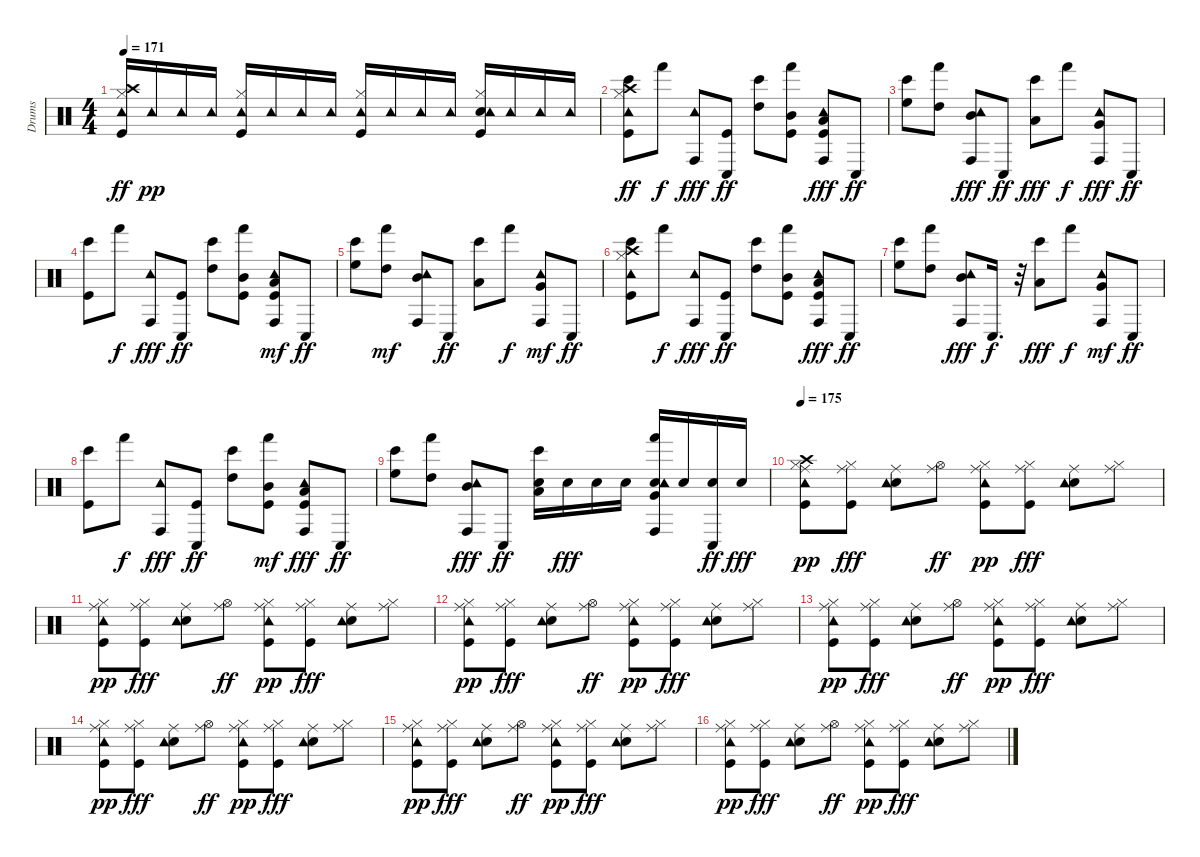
\track ("Drums" "Drums") {instrument percussion}
\staff {score}
\articulation defaults
\ts (4 4)
\tempo 171
\clef neutral
\ks c
("Kick (hit)" "Hi-Hat (closed)" "Crash high (hit)" "Tambourine (hit)").16{dy ff} "Tambourine (hit)".16{dy pp} "Tambourine (hit)".16 "Tambourine (hit)".16 ("Kick (hit)" "Hi-Hat (closed)" "Tambourine (hit)").16 "Tambourine (hit)".16 "Tambourine (hit)".16 "Tambourine (hit)".16 ("Kick (hit)" "Hi-Hat (closed)" "Tambourine (hit)").16 "Tambourine (hit)".16 "Tambourine (hit)".16 "Tambourine (hit)".16 ("Kick (hit)" "Snare (hit) 2" "Hi-Hat (closed)" "Tambourine (hit)").16 "Tambourine (hit)".16 "Tambourine (hit)".16 "Tambourine (hit)".16 |
("Kick (hit)" "Hi-Hat (closed)" "Crash high (hit)" "Tambourine (hit)" "Bongo High (hit)").8{dy ff} "Hand (hit)".8{dy f} ("Tambourine (hit)" "Conga high (hit)").8{dy fff} ("Kick (hit)" "Conga low (hit)").8{dy ff} ("High Tom (hit)" "Bongo High (hit)").8 ("Kick (hit)" "Mid Tom (hit)" "Hand (hit)").8 ("Kick (hit)" "Low Tom (hit)" "Tambourine (hit)" "Conga high (hit)").8{dy fff} "Conga low (hit)".8{dy ff} |
("High Floor Tom (hit)" "Bongo High (hit)").8 ("High Tom (hit)" "Hand (hit)").8 ("Mid Tom (hit)" "Tambourine (hit)" "Conga high (hit)").8{dy fff} "Conga low (hit)".8{dy ff} ("Low Tom (hit)" "Bongo High (hit)").8{dy fff} "Hand (hit)".8{dy f} ("Very Low Tom (hit)" "Tambourine (hit)" "Conga high (hit)").8{dy fff} "Conga low (hit)".8{dy ff} |
("Kick (hit)" "Bongo High (hit)").8 "Hand (hit)".8{dy f} ("Tambourine (hit)" "Conga high (hit)").8{dy fff} ("Kick (hit)" "Conga low (hit)").8{dy ff} ("High Tom (hit)" "Bongo High (hit)").8 ("Kick (hit)" "Mid Tom (hit)" "Hand (hit)").8 ("Kick (hit)" "Low Tom (hit)" "Tambourine (hit)" "Conga high (hit)").8{dy mf} "Conga low (hit)".8{dy ff} |
("High Floor Tom (hit)" "Bongo High (hit)").8 ("High Tom (hit)" "Hand (hit)").8{dy mf} ("Mid Tom (hit)" "Tambourine (hit)" "Conga high (hit)").8 "Conga low (hit)".8{dy ff} ("Low Tom (hit)" "Bongo High (hit)").8 "Hand (hit)".8{dy f} ("Very Low Tom (hit)" "Tambourine (hit)" "Conga high (hit)").8{dy mf} "Conga low (hit)".8{dy ff} |
("Kick (hit)" "Hi-Hat (closed)" "Crash high (hit)" "Tambourine (hit)" "Bongo High (hit)").8 "Hand (hit)".8{dy f} ("Tambourine (hit)" "Conga high (hit)").8{dy fff} ("Kick (hit)" "Conga low (hit)").8{dy ff} ("High Tom (hit)" "Bongo High (hit)").8 ("Kick (hit)" "Mid Tom (hit)" "Hand (hit)").8 ("Kick (hit)" "Low Tom (hit)" "Tambourine (hit)" "Conga high (hit)").8{dy fff} "Conga low (hit)".8{dy ff} |
("High Floor Tom (hit)" "Bongo High (hit)").8 ("High Tom (hit)" "Hand (hit)").8 ("Mid Tom (hit)" "Tambourine (hit)" "Conga high (hit)").8{dy fff} "Conga low (hit)".16{d dy f} r.32 ("Low Tom (hit)" "Bongo High (hit)").8{dy fff} "Hand (hit)".8{dy f} ("Very Low Tom (hit)" "Tambourine (hit)" "Conga high (hit)").8{dy mf} "Conga low (hit)".8{dy ff} |
("Kick (hit)" "Bongo High (hit)").8 "Hand (hit)".8{dy f} ("Tambourine (hit)" "Conga high (hit)").8{dy fff} ("Kick (hit)" "Conga low (hit)").8{dy ff} ("High Tom (hit)" "Bongo High (hit)").8 ("Kick (hit)" "Mid Tom (hit)" "Hand (hit)").8{dy mf} ("Kick (hit)" "Low Tom (hit)" "Tambourine (hit)" "Conga high (hit)").8{dy fff} "Conga low (hit)".8{dy ff} |
("High Floor Tom (hit)" "Bongo High (hit)").8 ("High Tom (hit)" "Hand (hit)").8 ("Mid Tom (hit)" "Tambourine (hit)" "Conga high (hit)").8{dy fff} "Conga low (hit)".8{dy ff} ("Snare (hit) 2" "Low Tom (hit)" "Bongo High (hit)").16 "Snare (hit) 2".16{dy fff} "Snare (hit) 2".16 "Snare (hit) 2".16 ("Snare (hit) 2" "Very Low Tom (hit)" "Tambourine (hit)" "Hand (hit)" "Conga high (hit)").16 "Snare (hit) 2".16 ("Snare (hit) 2" "Conga low (hit)").16{dy ff} "Snare (hit) 2".16{dy fff} |
\tempo 175
("Kick (hit)" "Hi-Hat (closed)" "Crash high (hit)" "Ride (middle)" "Tambourine (hit)").8{dy pp} ("Kick (hit)" "Hi-Hat (closed)" "Ride (middle)").8{dy fff} ("Snare (hit) 2" "Ride (middle)" "Tambourine (hit)").8 ("Hi-Hat (open)" "Ride (middle)").8{dy ff} ("Kick (hit)" "Hi-Hat (closed)" "Ride (middle)" "Tambourine (hit)").8{dy pp} ("Kick (hit)" "Hi-Hat (closed)" "Ride (middle)").8{dy fff} ("Snare (hit) 2" "Ride (middle)" "Tambourine (hit)").8 ("Hi-Hat (closed)" "Ride (middle)").8 |
("Kick (hit)" "Hi-Hat (closed)" "Ride (middle)" "Tambourine (hit)").8{dy pp} ("Kick (hit)" "Hi-Hat (closed)" "Ride (middle)").8{dy fff} ("Snare (hit) 2" "Ride (middle)" "Tambourine (hit)").8 ("Hi-Hat (open)" "Ride (middle)").8{dy ff} ("Kick (hit)" "Hi-Hat (closed)" "Ride (middle)" "Tambourine (hit)").8{dy pp} ("Kick (hit)" "Hi-Hat (closed)" "Ride (middle)").8{dy fff} ("Snare (hit) 2" "Ride (middle)" "Tambourine (hit)").8 ("Hi-Hat (closed)" "Ride (middle)").8 |
("Kick (hit)" "Hi-Hat (closed)" "Ride (middle)" "Tambourine (hit)").8{dy pp} ("Kick (hit)" "Hi-Hat (closed)" "Ride (middle)").8{dy fff} ("Snare (hit) 2" "Ride (middle)" "Tambourine (hit)").8 ("Hi-Hat (open)" "Ride (middle)").8{dy ff} ("Kick (hit)" "Hi-Hat (closed)" "Ride (middle)" "Tambourine (hit)").8{dy pp} ("Kick (hit)" "Hi-Hat (closed)" "Ride (middle)").8{dy fff} ("Snare (hit) 2" "Ride (middle)" "Tambourine (hit)").8 ("Hi-Hat (closed)" "Ride (middle)").8 |
("Kick (hit)" "Hi-Hat (closed)" "Ride (middle)" "Tambourine (hit)").8{dy pp} ("Kick (hit)" "Hi-Hat (closed)" "Ride (middle)").8{dy fff} ("Snare (hit) 2" "Ride (middle)" "Tambourine (hit)").8 ("Hi-Hat (open)" "Ride (middle)").8{dy ff} ("Kick (hit)" "Hi-Hat (closed)" "Ride (middle)" "Tambourine (hit)").8{dy pp} ("Kick (hit)" "Hi-Hat (closed)" "Ride (middle)").8{dy fff} ("Snare (hit) 2" "Ride (middle)" "Tambourine (hit)").8 ("Hi-Hat (closed)" "Ride (middle)").8 |
("Kick (hit)" "Hi-Hat (closed)" "Ride (middle)" "Tambourine (hit)").8{dy pp} ("Kick (hit)" "Hi-Hat (closed)" "Ride (middle)").8{dy fff} ("Snare (hit) 2" "Ride (middle)" "Tambourine (hit)").8 ("Hi-Hat (open)" "Ride (middle)").8{dy ff} ("Kick (hit)" "Hi-Hat (closed)" "Ride (middle)" "Tambourine (hit)").8{dy pp} ("Kick (hit)" "Hi-Hat (closed)" "Ride (middle)").8{dy fff} ("Snare (hit) 2" "Ride (middle)" "Tambourine (hit)").8 ("Hi-Hat (closed)" "Ride (middle)").8 |
("Kick (hit)" "Hi-Hat (closed)" "Ride (middle)" "Tambourine (hit)").8{dy pp} ("Kick (hit)" "Hi-Hat (closed)" "Ride (middle)").8{dy fff} ("Snare (hit) 2" "Ride (middle)" "Tambourine (hit)").8 ("Hi-Hat (open)" "Ride (middle)").8{dy ff} ("Kick (hit)" "Hi-Hat (closed)" "Ride (middle)" "Tambourine (hit)").8{dy pp} ("Kick (hit)" "Hi-Hat (closed)" "Ride (middle)").8{dy fff} ("Snare (hit) 2" "Ride (middle)" "Tambourine (hit)").8 ("Hi-Hat (closed)" "Ride (middle)").8 |
("Kick (hit)" "Hi-Hat (closed)" "Ride (middle)" "Tambourine (hit)").8{dy pp} ("Kick (hit)" "Hi-Hat (closed)" "Ride (middle)").8{dy fff} ("Snare (hit) 2" "Ride (middle)" "Tambourine (hit)").8 ("Hi-Hat (open)" "Ride (middle)").8{dy ff} ("Kick (hit)" "Hi-Hat (closed)" "Ride (middle)" "Tambourine (hit)").8{dy pp} ("Kick (hit)" "Hi-Hat (closed)" "Ride (middle)").8{dy fff} ("Snare (hit) 2" "Ride (middle)" "Tambourine (hit)").8 ("Hi-Hat (closed)" "Ride (middle)").8
